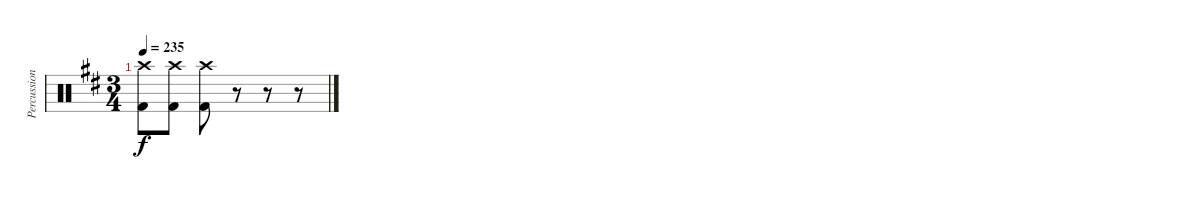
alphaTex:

\track ("Percussion" "Percussion") {instrument percussion}
\staff {score}
\articulation defaults
\ts (3 4)
\tempo 235
\clef neutral
\ks d
("Crash high (hit)" "Kick (hit) 2").8{dy f} ("Crash high (hit)" "Kick (hit) 2").8 ("Crash high (hit)" "Kick (hit) 2").8 r.8 r.8 r.8
